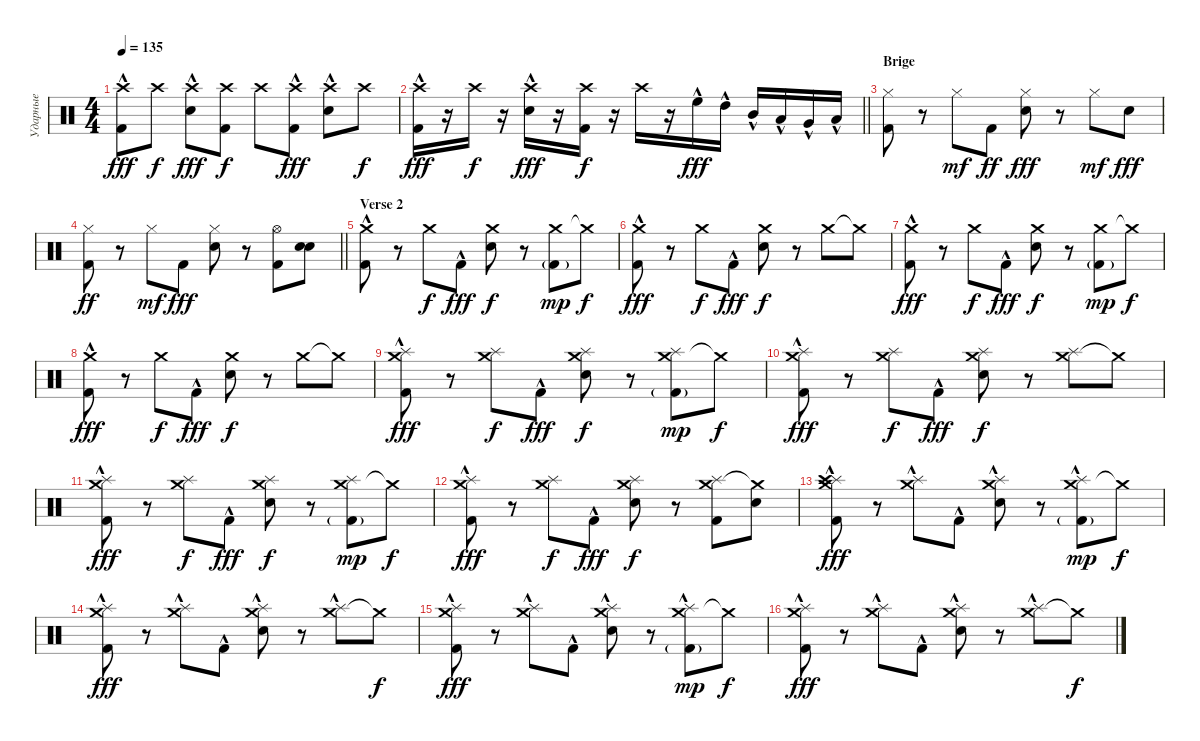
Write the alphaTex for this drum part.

\track ("Ударные" "Ударные") {instrument percussion}
\staff {score}
\articulation defaults
\ts (4 4)
\tempo 135
\clef neutral
\ks c
("Crash high (hit)" "Kick (hit) 2"{hac}).8{dy fff} "Crash high (hit)".8{dy f} ("Crash high (hit)" "Electric Snare (hit)"{hac}).8{dy fff} ("Crash high (hit)" "Kick (hit) 2").8{dy f} "Crash high (hit)".8 ("Crash high (hit)" "Kick (hit) 2"{hac}).8{dy fff} ("Crash high (hit)" "Electric Snare (hit)"{hac}).8 "Crash high (hit)".8{dy f} |
\barLineRight lightlight
("Crash high (hit)" "Kick (hit) 2"{hac}).16{dy fff} r.16 "Crash high (hit)".16{dy f} r.16 ("Crash high (hit)" "Electric Snare (hit)"{hac}).16{dy fff} r.16 ("Crash high (hit)" "Kick (hit) 2").16{dy f} r.16 "Crash high (hit)".16 r.16 "High Floor Tom (hit)"{hac}.16{dy fff} "High Tom (hit)"{hac}.16 "Mid Tom (hit)"{hac}.16 "Low Tom (hit)"{hac}.16 "Very Low Tom (hit)"{hac}.16 "Low Floor Tom (hit)"{hac}.16 |
\section ("" "Brige")
("Hi-Hat (closed)" "Kick (hit) 2").8 r.8 "Hi-Hat (closed)".8{dy mf} "Kick (hit) 2".8{dy ff} ("Hi-Hat (closed)" "Electric Snare (hit)").8{dy fff} r.8 "Hi-Hat (closed)".8{dy mf} "Snare (hit)".8{dy fff} |
\barLineRight lightlight
("Hi-Hat (closed)" "Kick (hit) 2").8{dy ff} r.8 "Hi-Hat (closed)".8{dy mf} "Kick (hit) 2".8{dy fff} ("Hi-Hat (closed)" "Electric Snare (hit)").8 r.8 ("Hi-Hat (open)" "Kick (hit) 2").8 ("Snare (hit)" "Electric Snare (hit)").8 |
\section ("" "Verse 2")
("Crash medium (hit)" "Kick (hit) 2"{hac}).8 r.8 "Crash medium (hit)".8{dy f} "Kick (hit) 2"{hac}.8{dy fff} ("Crash medium (hit)" "Electric Snare (hit)").8{dy f} r.8 ("Crash medium (hit)" "Kick (hit) 2"{g}).8{dy mp} "Crash medium (hit)"{t}.8{dy f} |
("Crash medium (hit)" "Kick (hit) 2"{hac}).8{dy fff} r.8 "Crash medium (hit)".8{dy f} "Kick (hit) 2"{hac}.8{dy fff} ("Crash medium (hit)" "Electric Snare (hit)").8{dy f} r.8 "Crash medium (hit)".8 "Crash medium (hit)"{t}.8 |
("Crash medium (hit)" "Kick (hit) 2"{hac}).8{dy fff} r.8 "Crash medium (hit)".8{dy f} "Kick (hit) 2"{hac}.8{dy fff} ("Crash medium (hit)" "Electric Snare (hit)").8{dy f} r.8 ("Crash medium (hit)" "Kick (hit) 2"{g}).8{dy mp} "Crash medium (hit)"{t}.8{dy f} |
("Crash medium (hit)" "Kick (hit) 2"{hac}).8{dy fff} r.8 "Crash medium (hit)".8{dy f} "Kick (hit) 2"{hac}.8{dy fff} ("Crash medium (hit)" "Electric Snare (hit)").8{dy f} r.8 "Crash medium (hit)".8 "Crash medium (hit)"{t}.8 |
("Crash medium (hit)" "Splash (hit)" "Kick (hit) 2"{hac}).8{dy fff} r.8 ("Crash medium (hit)" "Splash (hit)").8{dy f} "Kick (hit) 2"{hac}.8{dy fff} ("Crash medium (hit)" "Splash (hit)" "Electric Snare (hit)").8{dy f} r.8 ("Crash medium (hit)" "Splash (hit)" "Kick (hit) 2"{g}).8{dy mp} "Crash medium (hit)"{t}.8{dy f} |
("Crash medium (hit)" "Splash (hit)" "Kick (hit) 2"{hac}).8{dy fff} r.8 ("Crash medium (hit)" "Splash (hit)").8{dy f} "Kick (hit) 2"{hac}.8{dy fff} ("Crash medium (hit)" "Splash (hit)" "Electric Snare (hit)").8{dy f} r.8 ("Crash medium (hit)" "Splash (hit)").8 "Crash medium (hit)"{t}.8 |
("Crash medium (hit)" "Splash (hit)" "Kick (hit) 2"{hac}).8{dy fff} r.8 ("Crash medium (hit)" "Splash (hit)").8{dy f} "Kick (hit) 2"{hac}.8{dy fff} ("Crash medium (hit)" "Splash (hit)" "Electric Snare (hit)").8{dy f} r.8 ("Crash medium (hit)" "Splash (hit)" "Kick (hit) 2"{g}).8{dy mp} "Crash medium (hit)"{t}.8{dy f} |
("Crash medium (hit)" "Splash (hit)" "Kick (hit) 2"{hac}).8{dy fff} r.8 ("Crash medium (hit)" "Splash (hit)").8{dy f} "Kick (hit) 2"{hac}.8{dy fff} ("Crash medium (hit)" "Splash (hit)" "Electric Snare (hit)").8{dy f} r.8 ("Crash medium (hit)" "Splash (hit)" "Kick (hit) 2").8 ("Crash medium (hit)"{t} "Electric Snare (hit)").8 |
("Crash medium (hit)" "Splash (hit)"{hac} "Crash high (hit)"{hac} "Kick (hit) 2"{hac}).8{dy fff} r.8 ("Crash medium (hit)" "Splash (hit)"{hac}).8 "Kick (hit) 2"{hac}.8 ("Crash medium (hit)" "Splash (hit)"{hac} "Electric Snare (hit)").8 r.8 ("Crash medium (hit)" "Splash (hit)"{hac} "Kick (hit) 2"{g}).8{dy mp} "Crash medium (hit)"{t}.8{dy f} |
("Crash medium (hit)" "Splash (hit)"{hac} "Kick (hit) 2"{hac}).8{dy fff} r.8 ("Crash medium (hit)" "Splash (hit)"{hac}).8 "Kick (hit) 2"{hac}.8 ("Crash medium (hit)" "Splash (hit)"{hac} "Electric Snare (hit)").8 r.8 ("Crash medium (hit)" "Splash (hit)"{hac}).8 "Crash medium (hit)"{t}.8{dy f} |
("Crash medium (hit)" "Splash (hit)"{hac} "Kick (hit) 2"{hac}).8{dy fff} r.8 ("Crash medium (hit)" "Splash (hit)"{hac}).8 "Kick (hit) 2"{hac}.8 ("Crash medium (hit)" "Splash (hit)"{hac} "Electric Snare (hit)").8 r.8 ("Crash medium (hit)" "Splash (hit)"{hac} "Kick (hit) 2"{g}).8{dy mp} "Crash medium (hit)"{t}.8{dy f} |
("Crash medium (hit)" "Splash (hit)"{hac} "Kick (hit) 2"{hac}).8{dy fff} r.8 ("Crash medium (hit)" "Splash (hit)"{hac}).8 "Kick (hit) 2"{hac}.8 ("Crash medium (hit)" "Splash (hit)"{hac} "Electric Snare (hit)").8 r.8 ("Crash medium (hit)" "Splash (hit)"{hac}).8 "Crash medium (hit)"{t}.8{dy f}
